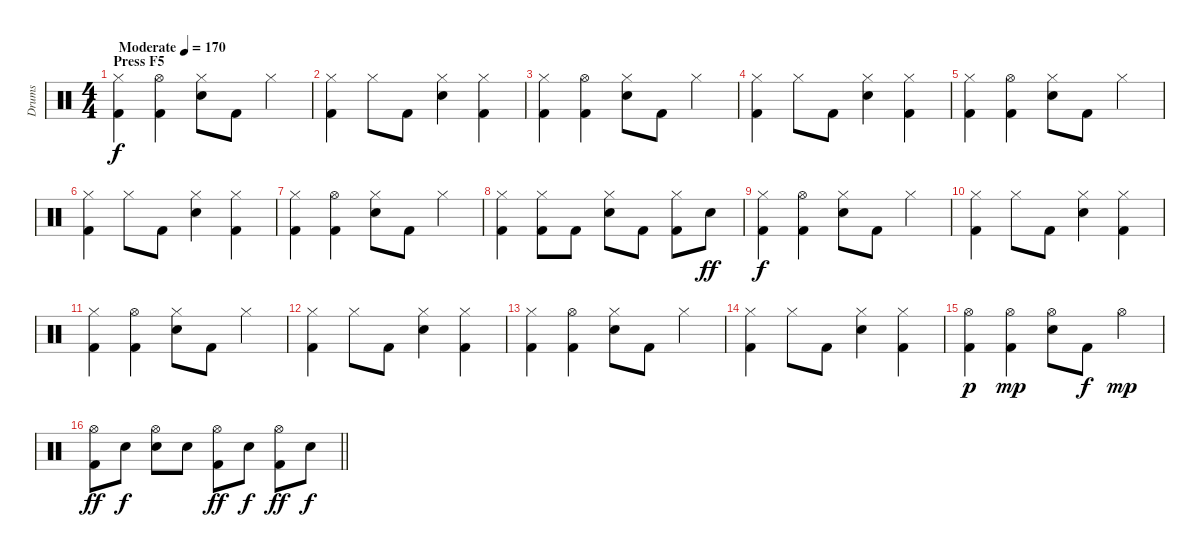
\track ("Drums" "Drums") {instrument percussion}
\staff {score}
\articulation defaults
\ts (4 4)
\section ("" "Press F5")
\tempo (170 "Moderate")
\clef neutral
\ks c
("Hi-Hat (closed)" "Kick (hit) 2").4{dy f} ("Hi-Hat (open)" "Kick (hit) 2").4 ("Hi-Hat (closed)" "Snare (hit) 2").8 "Kick (hit) 2".8 "Hi-Hat (closed)".4 |
("Hi-Hat (closed)" "Kick (hit) 2").4 "Hi-Hat (closed)".8 "Kick (hit) 2".8 ("Hi-Hat (closed)" "Snare (hit) 2").4 ("Hi-Hat (closed)" "Kick (hit) 2").4 |
("Hi-Hat (closed)" "Kick (hit) 2").4 ("Hi-Hat (open)" "Kick (hit) 2").4 ("Hi-Hat (closed)" "Snare (hit) 2").8 "Kick (hit) 2".8 "Hi-Hat (closed)".4 |
("Hi-Hat (closed)" "Kick (hit) 2").4 "Hi-Hat (closed)".8 "Kick (hit) 2".8 ("Hi-Hat (closed)" "Snare (hit) 2").4 ("Hi-Hat (closed)" "Kick (hit) 2").4 |
("Hi-Hat (closed)" "Kick (hit) 2").4 ("Hi-Hat (open)" "Kick (hit) 2").4 ("Hi-Hat (closed)" "Snare (hit) 2").8 "Kick (hit) 2".8 "Hi-Hat (closed)".4 |
("Hi-Hat (closed)" "Kick (hit) 2").4 "Hi-Hat (closed)".8 "Kick (hit) 2".8 ("Hi-Hat (closed)" "Snare (hit) 2").4 ("Hi-Hat (closed)" "Kick (hit) 2").4 |
("Hi-Hat (closed)" "Kick (hit) 2").4 ("Hi-Hat (open)" "Kick (hit) 2").4 ("Hi-Hat (closed)" "Snare (hit) 2").8 "Kick (hit) 2".8 "Hi-Hat (closed)".4 |
("Hi-Hat (closed)" "Kick (hit) 2").4 ("Hi-Hat (closed)" "Kick (hit) 2").8 "Kick (hit) 2".8 ("Hi-Hat (closed)" "Snare (hit) 2").8 "Kick (hit) 2".8 ("Hi-Hat (closed)" "Kick (hit) 2").8 "Snare (hit) 2".8{dy ff} |
("Hi-Hat (closed)" "Kick (hit) 2").4{dy f} ("Hi-Hat (open)" "Kick (hit) 2").4 ("Hi-Hat (closed)" "Snare (hit) 2").8 "Kick (hit) 2".8 "Hi-Hat (closed)".4 |
("Hi-Hat (closed)" "Kick (hit) 2").4 "Hi-Hat (closed)".8 "Kick (hit) 2".8 ("Hi-Hat (closed)" "Snare (hit) 2").4 ("Hi-Hat (closed)" "Kick (hit) 2").4 |
("Hi-Hat (closed)" "Kick (hit) 2").4 ("Hi-Hat (open)" "Kick (hit) 2").4 ("Hi-Hat (closed)" "Snare (hit) 2").8 "Kick (hit) 2".8 "Hi-Hat (closed)".4 |
("Hi-Hat (closed)" "Kick (hit) 2").4 "Hi-Hat (closed)".8 "Kick (hit) 2".8 ("Hi-Hat (closed)" "Snare (hit) 2").4 ("Hi-Hat (closed)" "Kick (hit) 2").4 |
("Hi-Hat (closed)" "Kick (hit) 2").4 ("Hi-Hat (open)" "Kick (hit) 2").4 ("Hi-Hat (closed)" "Snare (hit) 2").8 "Kick (hit) 2".8 "Hi-Hat (closed)".4 |
("Hi-Hat (closed)" "Kick (hit) 2").4 "Hi-Hat (closed)".8 "Kick (hit) 2".8 ("Hi-Hat (closed)" "Snare (hit) 2").4 ("Hi-Hat (closed)" "Kick (hit) 2").4 |
("Hi-Hat (open)" "Kick (hit) 2").4{dy p} ("Hi-Hat (open)" "Kick (hit) 2").4{dy mp} ("Hi-Hat (open)" "Snare (hit) 2").8 "Kick (hit) 2".8{dy f} "Hi-Hat (open)".4{dy mp} |
\barLineRight lightlight
("Hi-Hat (open)" "Kick (hit) 2").8{dy ff} "Snare (hit) 2".8{dy f} ("Hi-Hat (open)" "Snare (hit) 2").8 "Snare (hit) 2".8 ("Hi-Hat (open)" "Kick (hit) 2").8{dy ff} "Snare (hit) 2".8{dy f} ("Hi-Hat (open)" "Kick (hit) 2").8{dy ff} "Snare (hit) 2".8{dy f}
